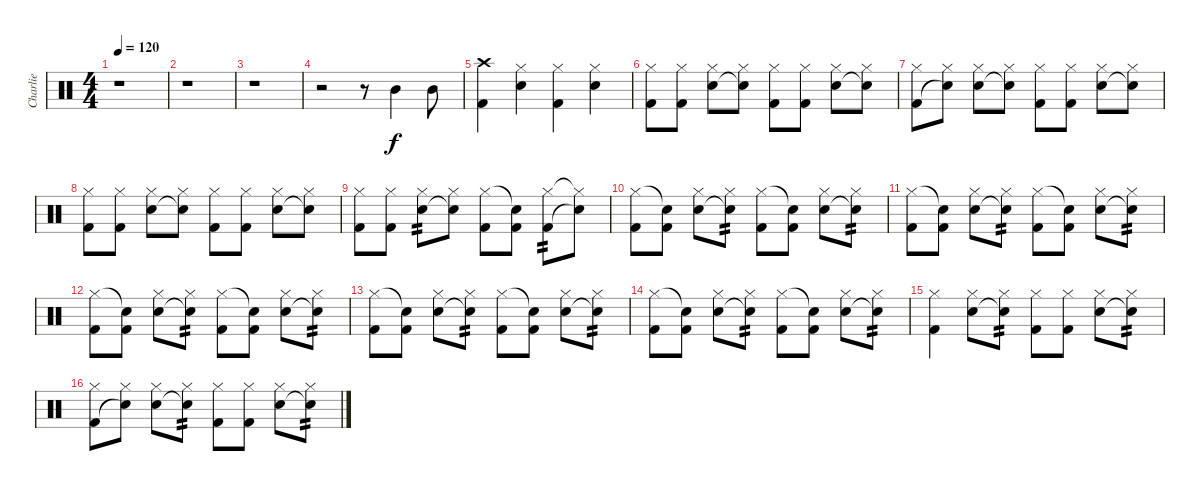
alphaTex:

\track ("Charlie" "Charlie") {instrument percussion}
\staff {score}
\articulation defaults
\ts (4 4)
\tempo 120
\clef neutral
\ks c
r.1{dy f} |
r.1 |
r.1 |
r.2 r.8 "Mid Tom (hit)".4 "Mid Tom (hit)".8 |
("Crash high (hit)" "Kick (hit) 2").4 ("Hi-Hat (closed)" "Snare (hit) 2").4 ("Hi-Hat (closed)" "Kick (hit) 2").4 ("Hi-Hat (closed)" "Snare (hit) 2").4 |
("Hi-Hat (closed)" "Kick (hit) 2").8 ("Hi-Hat (closed)" "Kick (hit) 2").8 ("Hi-Hat (closed)" "Snare (hit) 2").8 ("Hi-Hat (closed)" "Snare (hit)"{t}).8 ("Hi-Hat (closed)" "Kick (hit) 2").8 ("Hi-Hat (closed)" "Kick (hit) 2").8 ("Hi-Hat (closed)" "Snare (hit) 2").8 ("Hi-Hat (closed)" "Snare (hit)"{t}).8 |
("Hi-Hat (closed)" "Kick (hit) 2").8 ("Hi-Hat (closed)" "Snare (hit)"{t}).8 ("Hi-Hat (closed)" "Snare (hit) 2").8 ("Hi-Hat (closed)" "Snare (hit)"{t}).8 ("Hi-Hat (closed)" "Kick (hit) 2").8 ("Hi-Hat (closed)" "Kick (hit) 2").8 ("Hi-Hat (closed)" "Snare (hit) 2").8 ("Hi-Hat (closed)" "Snare (hit)"{t}).8 |
("Hi-Hat (closed)" "Kick (hit) 2").8 ("Hi-Hat (closed)" "Kick (hit) 2").8 ("Hi-Hat (closed)" "Snare (hit) 2").8 ("Hi-Hat (closed)" "Snare (hit)"{t}).8 ("Hi-Hat (closed)" "Kick (hit) 2").8 ("Hi-Hat (closed)" "Kick (hit) 2").8 ("Hi-Hat (closed)" "Snare (hit) 2").8 ("Hi-Hat (closed)" "Snare (hit)"{t}).8 |
("Hi-Hat (closed)" "Kick (hit) 2").8 ("Hi-Hat (closed)" "Kick (hit) 2").8 ("Hi-Hat (closed)" "Snare (hit) 2").8{tp 2} ("Hi-Hat (closed)" "Snare (hit) 2"{t}).8 ("Hi-Hat (closed)" "Kick (hit) 2").8 ("Snare (hit)"{t} "Kick (hit) 2").8 ("Hi-Hat (closed)" "Kick (hit) 2").8{tp 2} ("Hi-Hat (closed)"{t} "Snare (hit)"{t}).8 |
("Hi-Hat (closed)" "Kick (hit) 2").8 ("Snare (hit)"{t} "Kick (hit) 2").8 ("Hi-Hat (closed)" "Snare (hit) 2").8 ("Hi-Hat (closed)" "Snare (hit)"{t}).8{tp 2} ("Hi-Hat (closed)" "Kick (hit) 2").8 ("Snare (hit)"{t} "Kick (hit) 2").8 ("Hi-Hat (closed)" "Snare (hit) 2").8 ("Hi-Hat (closed)" "Snare (hit)"{t}).8{tp 2} |
("Hi-Hat (closed)" "Kick (hit) 2").8 ("Snare (hit)"{t} "Kick (hit) 2").8 ("Hi-Hat (closed)" "Snare (hit) 2").8 ("Hi-Hat (closed)" "Snare (hit)"{t}).8{tp 2} ("Hi-Hat (closed)" "Kick (hit) 2").8 ("Snare (hit)"{t} "Kick (hit) 2").8 ("Hi-Hat (closed)" "Snare (hit) 2").8 ("Hi-Hat (closed)" "Snare (hit)"{t}).8{tp 2} |
("Hi-Hat (closed)" "Kick (hit) 2").8 ("Snare (hit)"{t} "Kick (hit) 2").8 ("Hi-Hat (closed)" "Snare (hit) 2").8 ("Hi-Hat (closed)" "Snare (hit)"{t}).8{tp 2} ("Hi-Hat (closed)" "Kick (hit) 2").8 ("Snare (hit)"{t} "Kick (hit) 2").8 ("Hi-Hat (closed)" "Snare (hit) 2").8 ("Hi-Hat (closed)" "Snare (hit)"{t}).8{tp 2} |
("Hi-Hat (closed)" "Kick (hit) 2").8 ("Snare (hit)"{t} "Kick (hit) 2").8 ("Hi-Hat (closed)" "Snare (hit) 2").8 ("Hi-Hat (closed)" "Snare (hit)"{t}).8{tp 2} ("Hi-Hat (closed)" "Kick (hit) 2").8 ("Snare (hit)"{t} "Kick (hit) 2").8 ("Hi-Hat (closed)" "Snare (hit) 2").8 ("Hi-Hat (closed)" "Snare (hit)"{t}).8{tp 2} |
("Hi-Hat (closed)" "Kick (hit) 2").8 ("Snare (hit)"{t} "Kick (hit) 2").8 ("Hi-Hat (closed)" "Snare (hit) 2").8 ("Hi-Hat (closed)" "Snare (hit)"{t}).8{tp 2} ("Hi-Hat (closed)" "Kick (hit) 2").8 ("Snare (hit)"{t} "Kick (hit) 2").8 ("Hi-Hat (closed)" "Snare (hit) 2").8 ("Hi-Hat (closed)" "Snare (hit)"{t}).8{tp 2} |
("Hi-Hat (closed)" "Kick (hit) 2").4 ("Hi-Hat (closed)" "Snare (hit) 2").8 ("Hi-Hat (closed)" "Snare (hit)"{t}).8{tp 2} ("Hi-Hat (closed)" "Kick (hit) 2").8 ("Hi-Hat (closed)" "Kick (hit) 2").8 ("Hi-Hat (closed)" "Snare (hit) 2").8 ("Hi-Hat (closed)" "Snare (hit)"{t}).8{tp 2} |
("Hi-Hat (closed)" "Kick (hit) 2").8 ("Hi-Hat (closed)" "Snare (hit)"{t}).8 ("Hi-Hat (closed)" "Snare (hit) 2").8 ("Hi-Hat (closed)" "Snare (hit)"{t}).8{tp 2} ("Hi-Hat (closed)" "Kick (hit) 2").8 ("Hi-Hat (closed)" "Kick (hit) 2").8 ("Hi-Hat (closed)" "Snare (hit) 2").8 ("Hi-Hat (closed)" "Snare (hit)"{t}).8{tp 2}
